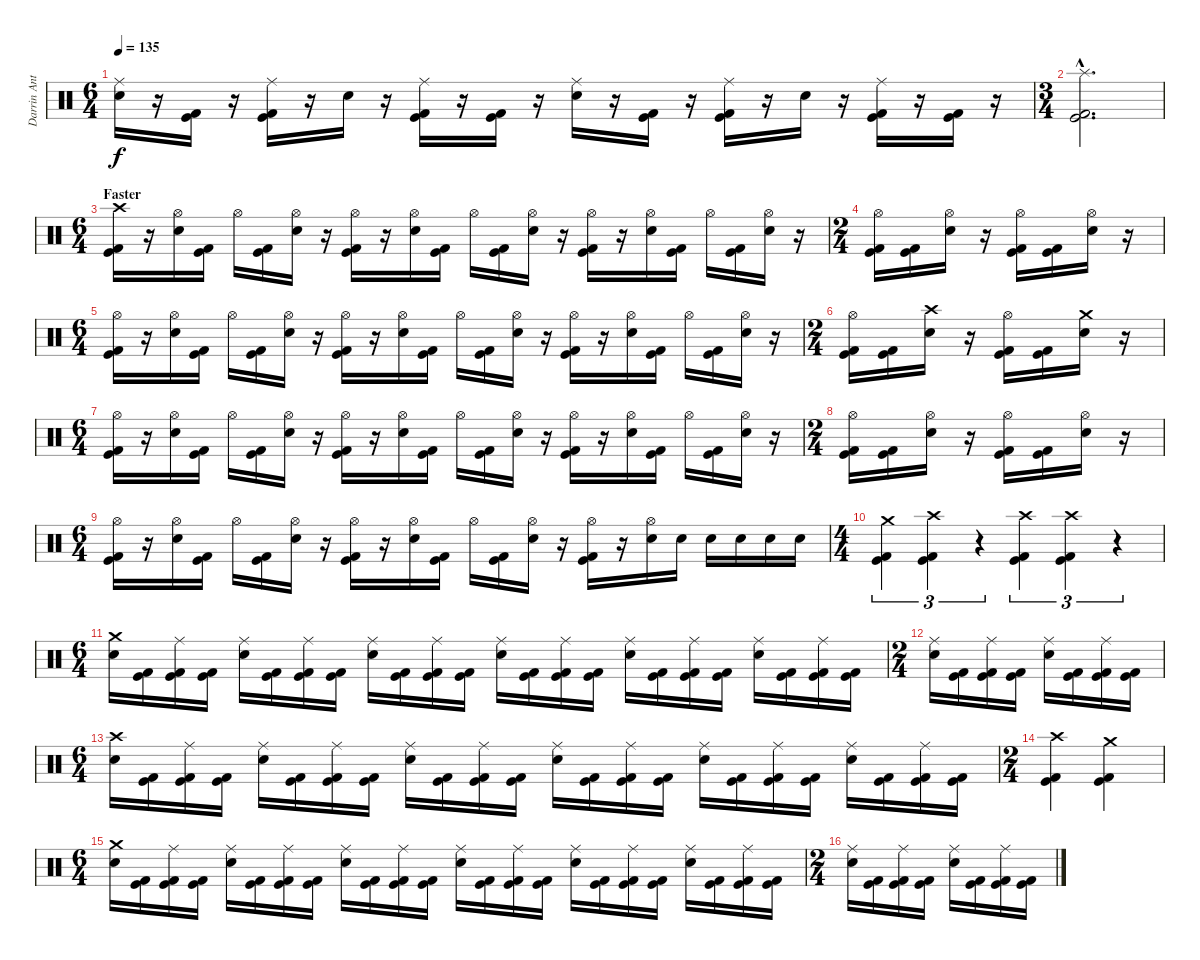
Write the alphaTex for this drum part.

\track ("Darrin Anthony" "Darrin Ant") {instrument percussion}
\staff {score}
\articulation defaults
\ts (6 4)
\tempo 135
\clef neutral
\ks c
("Ride (middle)" "Electric Snare (hit)").16{dy f} r.16 ("Kick (hit)" "Kick (hit) 2").16 r.16 ("Ride (middle)" "Kick (hit)" "Kick (hit) 2").16 r.16 "Electric Snare (hit)".16 r.16 ("Ride (middle)" "Kick (hit)" "Kick (hit) 2").16 r.16 ("Kick (hit)" "Kick (hit) 2").16 r.16 ("Ride (middle)" "Electric Snare (hit)").16 r.16 ("Kick (hit)" "Kick (hit) 2").16 r.16 ("Ride (middle)" "Kick (hit)" "Kick (hit) 2").16 r.16 "Electric Snare (hit)".16 r.16 ("Ride (middle)" "Kick (hit)" "Kick (hit) 2").16 r.16 ("Kick (hit)" "Kick (hit) 2").16 r.16 |
\ts (3 4)
("Splash (hit)"{hac} "Kick (hit)"{hac} "Kick (hit) 2"{hac}).2{d} |
\ts (6 4)
\section ("" "Faster")
("Crash high (hit)" "Kick (hit)" "Kick (hit) 2").16 r.16 ("Hi-Hat (open)" "Electric Snare (hit)").16 ("Kick (hit)" "Kick (hit) 2").16 "Hi-Hat (open)".16 ("Kick (hit)" "Kick (hit) 2").16 ("Hi-Hat (open)" "Electric Snare (hit)").16 r.16 ("Hi-Hat (open)" "Kick (hit)" "Kick (hit) 2").16 r.16 ("Hi-Hat (open)" "Electric Snare (hit)").16 ("Kick (hit)" "Kick (hit) 2").16 "Hi-Hat (open)".16 ("Kick (hit)" "Kick (hit) 2").16 ("Hi-Hat (open)" "Electric Snare (hit)").16 r.16 ("Hi-Hat (open)" "Kick (hit)" "Kick (hit) 2").16 r.16 ("Hi-Hat (open)" "Electric Snare (hit)").16 ("Kick (hit)" "Kick (hit) 2").16 "Hi-Hat (open)".16 ("Kick (hit)" "Kick (hit) 2").16 ("Hi-Hat (open)" "Electric Snare (hit)").16 r.16 |
\ts (2 4)
("Hi-Hat (open)" "Kick (hit)" "Kick (hit) 2").16 ("Kick (hit)" "Kick (hit) 2").16 ("Hi-Hat (open)" "Electric Snare (hit)").16 r.16 ("Hi-Hat (open)" "Kick (hit)" "Kick (hit) 2").16 ("Kick (hit)" "Kick (hit) 2").16 ("Hi-Hat (open)" "Electric Snare (hit)").16 r.16 |
\ts (6 4)
("Hi-Hat (open)" "Kick (hit)" "Kick (hit) 2").16 r.16 ("Hi-Hat (open)" "Electric Snare (hit)").16 ("Kick (hit)" "Kick (hit) 2").16 "Hi-Hat (open)".16 ("Kick (hit)" "Kick (hit) 2").16 ("Hi-Hat (open)" "Electric Snare (hit)").16 r.16 ("Hi-Hat (open)" "Kick (hit)" "Kick (hit) 2").16 r.16 ("Hi-Hat (open)" "Electric Snare (hit)").16 ("Kick (hit)" "Kick (hit) 2").16 "Hi-Hat (open)".16 ("Kick (hit)" "Kick (hit) 2").16 ("Hi-Hat (open)" "Electric Snare (hit)").16 r.16 ("Hi-Hat (open)" "Kick (hit)" "Kick (hit) 2").16 r.16 ("Hi-Hat (open)" "Electric Snare (hit)").16 ("Kick (hit)" "Kick (hit) 2").16 "Hi-Hat (open)".16 ("Kick (hit)" "Kick (hit) 2").16 ("Hi-Hat (open)" "Electric Snare (hit)").16 r.16 |
\ts (2 4)
("Hi-Hat (open)" "Kick (hit)" "Kick (hit) 2").16 ("Kick (hit)" "Kick (hit) 2").16 ("Crash high (hit)" "Electric Snare (hit)").16 r.16 ("Hi-Hat (open)" "Kick (hit)" "Kick (hit) 2").16 ("Kick (hit)" "Kick (hit) 2").16 ("Crash medium (hit)" "Electric Snare (hit)").16 r.16 |
\ts (6 4)
("Hi-Hat (open)" "Kick (hit)" "Kick (hit) 2").16 r.16 ("Hi-Hat (open)" "Electric Snare (hit)").16 ("Kick (hit)" "Kick (hit) 2").16 "Hi-Hat (open)".16 ("Kick (hit)" "Kick (hit) 2").16 ("Hi-Hat (open)" "Electric Snare (hit)").16 r.16 ("Hi-Hat (open)" "Kick (hit)" "Kick (hit) 2").16 r.16 ("Hi-Hat (open)" "Electric Snare (hit)").16 ("Kick (hit)" "Kick (hit) 2").16 "Hi-Hat (open)".16 ("Kick (hit)" "Kick (hit) 2").16 ("Hi-Hat (open)" "Electric Snare (hit)").16 r.16 ("Hi-Hat (open)" "Kick (hit)" "Kick (hit) 2").16 r.16 ("Hi-Hat (open)" "Electric Snare (hit)").16 ("Kick (hit)" "Kick (hit) 2").16 "Hi-Hat (open)".16 ("Kick (hit)" "Kick (hit) 2").16 ("Hi-Hat (open)" "Electric Snare (hit)").16 r.16 |
\ts (2 4)
("Hi-Hat (open)" "Kick (hit)" "Kick (hit) 2").16 ("Kick (hit)" "Kick (hit) 2").16 ("Hi-Hat (open)" "Electric Snare (hit)").16 r.16 ("Hi-Hat (open)" "Kick (hit)" "Kick (hit) 2").16 ("Kick (hit)" "Kick (hit) 2").16 ("Hi-Hat (open)" "Electric Snare (hit)").16 r.16 |
\ts (6 4)
("Hi-Hat (open)" "Kick (hit)" "Kick (hit) 2").16 r.16 ("Hi-Hat (open)" "Electric Snare (hit)").16 ("Kick (hit)" "Kick (hit) 2").16 "Hi-Hat (open)".16 ("Kick (hit)" "Kick (hit) 2").16 ("Hi-Hat (open)" "Electric Snare (hit)").16 r.16 ("Hi-Hat (open)" "Kick (hit)" "Kick (hit) 2").16 r.16 ("Hi-Hat (open)" "Electric Snare (hit)").16 ("Kick (hit)" "Kick (hit) 2").16 "Hi-Hat (open)".16 ("Kick (hit)" "Kick (hit) 2").16 ("Hi-Hat (open)" "Electric Snare (hit)").16 r.16 ("Hi-Hat (open)" "Kick (hit)" "Kick (hit) 2").16 r.16 ("Hi-Hat (open)" "Electric Snare (hit)").16 "Electric Snare (hit)".16 "Electric Snare (hit)".16 "Electric Snare (hit)".16 "Electric Snare (hit)".16 "Electric Snare (hit)".16 |
\ts (4 4)
("Crash medium (hit)" "Kick (hit)" "Kick (hit) 2").4{tu (3 2)} ("Crash high (hit)" "Kick (hit)" "Kick (hit) 2").4{tu (3 2)} r.4{tu (3 2)} ("Crash high (hit)" "Kick (hit)" "Kick (hit) 2").4{tu (3 2)} ("Crash high (hit)" "Kick (hit)" "Kick (hit) 2").4{tu (3 2)} r.4{tu (3 2)} |
\ts (6 4)
("Crash medium (hit)" "Electric Snare (hit)").16 ("Kick (hit)" "Kick (hit) 2").16 ("Ride (middle)" "Kick (hit)" "Kick (hit) 2").16 ("Kick (hit)" "Kick (hit) 2").16 ("Ride (middle)" "Electric Snare (hit)").16 ("Kick (hit)" "Kick (hit) 2").16 ("Ride (middle)" "Kick (hit)" "Kick (hit) 2").16 ("Kick (hit)" "Kick (hit) 2").16 ("Ride (middle)" "Electric Snare (hit)").16 ("Kick (hit)" "Kick (hit) 2").16 ("Ride (middle)" "Kick (hit)" "Kick (hit) 2").16 ("Kick (hit)" "Kick (hit) 2").16 ("Ride (middle)" "Electric Snare (hit)").16 ("Kick (hit)" "Kick (hit) 2").16 ("Ride (middle)" "Kick (hit)" "Kick (hit) 2").16 ("Kick (hit)" "Kick (hit) 2").16 ("Ride (middle)" "Electric Snare (hit)").16 ("Kick (hit)" "Kick (hit) 2").16 ("Ride (middle)" "Kick (hit)" "Kick (hit) 2").16 ("Kick (hit)" "Kick (hit) 2").16 ("Ride (middle)" "Electric Snare (hit)").16 ("Kick (hit)" "Kick (hit) 2").16 ("Ride (middle)" "Kick (hit)" "Kick (hit) 2").16 ("Kick (hit)" "Kick (hit) 2").16 |
\ts (2 4)
("Ride (middle)" "Electric Snare (hit)").16 ("Kick (hit)" "Kick (hit) 2").16 ("Ride (middle)" "Kick (hit)" "Kick (hit) 2").16 ("Kick (hit)" "Kick (hit) 2").16 ("Ride (middle)" "Electric Snare (hit)").16 ("Kick (hit)" "Kick (hit) 2").16 ("Ride (middle)" "Kick (hit)" "Kick (hit) 2").16 ("Kick (hit)" "Kick (hit) 2").16 |
\ts (6 4)
("Crash high (hit)" "Electric Snare (hit)").16 ("Kick (hit)" "Kick (hit) 2").16 ("Ride (middle)" "Kick (hit)" "Kick (hit) 2").16 ("Kick (hit)" "Kick (hit) 2").16 ("Ride (middle)" "Electric Snare (hit)").16 ("Kick (hit)" "Kick (hit) 2").16 ("Ride (middle)" "Kick (hit)" "Kick (hit) 2").16 ("Kick (hit)" "Kick (hit) 2").16 ("Ride (middle)" "Electric Snare (hit)").16 ("Kick (hit)" "Kick (hit) 2").16 ("Ride (middle)" "Kick (hit)" "Kick (hit) 2").16 ("Kick (hit)" "Kick (hit) 2").16 ("Ride (middle)" "Electric Snare (hit)").16 ("Kick (hit)" "Kick (hit) 2").16 ("Ride (middle)" "Kick (hit)" "Kick (hit) 2").16 ("Kick (hit)" "Kick (hit) 2").16 ("Ride (middle)" "Electric Snare (hit)").16 ("Kick (hit)" "Kick (hit) 2").16 ("Ride (middle)" "Kick (hit)" "Kick (hit) 2").16 ("Kick (hit)" "Kick (hit) 2").16 ("Ride (middle)" "Electric Snare (hit)").16 ("Kick (hit)" "Kick (hit) 2").16 ("Ride (middle)" "Kick (hit)" "Kick (hit) 2").16 ("Kick (hit)" "Kick (hit) 2").16 |
\ts (2 4)
("Crash high (hit)" "Kick (hit)" "Kick (hit) 2").4 ("Crash medium (hit)" "Kick (hit)" "Kick (hit) 2").4 |
\ts (6 4)
("Crash medium (hit)" "Electric Snare (hit)").16 ("Kick (hit)" "Kick (hit) 2").16 ("Ride (middle)" "Kick (hit)" "Kick (hit) 2").16 ("Kick (hit)" "Kick (hit) 2").16 ("Ride (middle)" "Electric Snare (hit)").16 ("Kick (hit)" "Kick (hit) 2").16 ("Ride (middle)" "Kick (hit)" "Kick (hit) 2").16 ("Kick (hit)" "Kick (hit) 2").16 ("Ride (middle)" "Electric Snare (hit)").16 ("Kick (hit)" "Kick (hit) 2").16 ("Ride (middle)" "Kick (hit)" "Kick (hit) 2").16 ("Kick (hit)" "Kick (hit) 2").16 ("Ride (middle)" "Electric Snare (hit)").16 ("Kick (hit)" "Kick (hit) 2").16 ("Ride (middle)" "Kick (hit)" "Kick (hit) 2").16 ("Kick (hit)" "Kick (hit) 2").16 ("Ride (middle)" "Electric Snare (hit)").16 ("Kick (hit)" "Kick (hit) 2").16 ("Ride (middle)" "Kick (hit)" "Kick (hit) 2").16 ("Kick (hit)" "Kick (hit) 2").16 ("Ride (middle)" "Electric Snare (hit)").16 ("Kick (hit)" "Kick (hit) 2").16 ("Ride (middle)" "Kick (hit)" "Kick (hit) 2").16 ("Kick (hit)" "Kick (hit) 2").16 |
\ts (2 4)
("Ride (middle)" "Electric Snare (hit)").16 ("Kick (hit)" "Kick (hit) 2").16 ("Ride (middle)" "Kick (hit)" "Kick (hit) 2").16 ("Kick (hit)" "Kick (hit) 2").16 ("Ride (middle)" "Electric Snare (hit)").16 ("Kick (hit)" "Kick (hit) 2").16 ("Ride (middle)" "Kick (hit)" "Kick (hit) 2").16 ("Kick (hit)" "Kick (hit) 2").16
